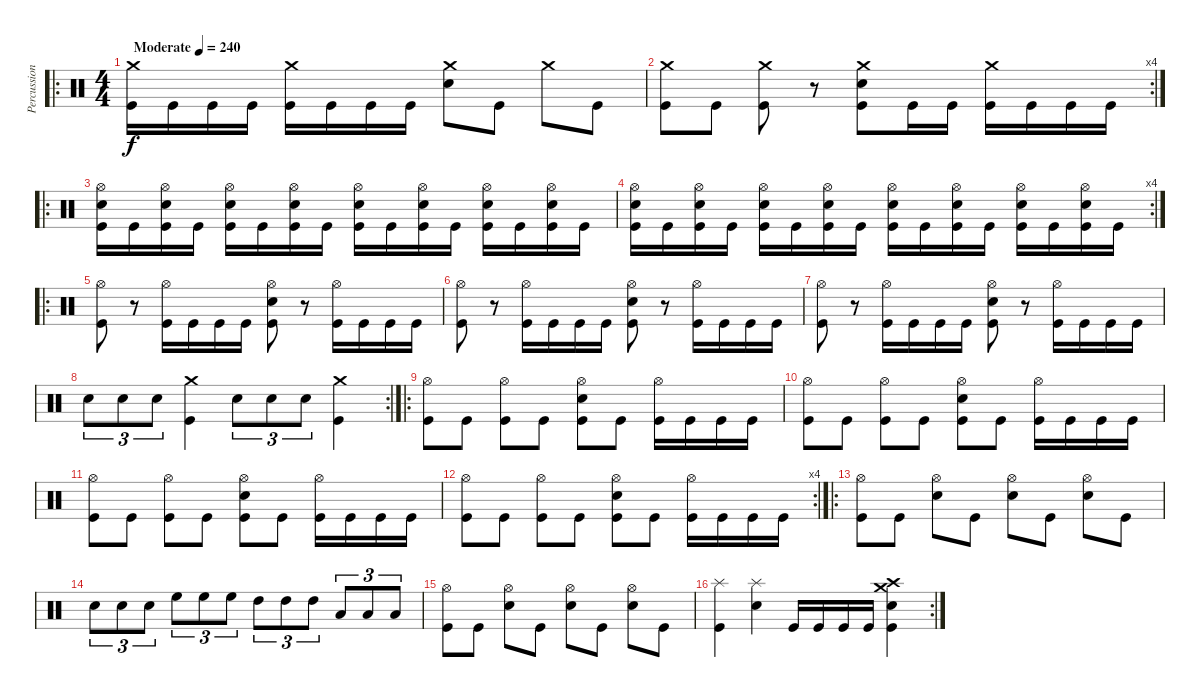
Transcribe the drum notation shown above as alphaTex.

\track ("Percussion" "Percussion") {instrument percussion}
\staff {score}
\articulation defaults
\ro
\ts (4 4)
\tempo (240 "Moderate")
\clef neutral
\ks c
("Crash medium (hit)" "Kick (hit)").16{dy f} "Kick (hit)".16 "Kick (hit)".16 "Kick (hit)".16 ("Crash medium (hit)" "Kick (hit)").16 "Kick (hit)".16 "Kick (hit)".16 "Kick (hit)".16 ("Crash medium (hit)" "Snare (hit) 2").8 "Kick (hit)".8 "Crash medium (hit)".8 "Kick (hit)".8 |
\rc 4
("Crash medium (hit)" "Kick (hit)").8 "Kick (hit)".8 ("Crash medium (hit)" "Kick (hit)").8 r.8 ("Crash medium (hit)" "Snare (hit) 2" "Kick (hit)").8 "Kick (hit)".16 "Kick (hit)".16 ("Crash medium (hit)" "Kick (hit)").16 "Kick (hit)".16 "Kick (hit)".16 "Kick (hit)".16 |
\ro
("Hi-Hat (open)" "Snare (hit) 2" "Kick (hit)").16 "Kick (hit)".16 ("Hi-Hat (open)" "Snare (hit) 2" "Kick (hit)").16 "Kick (hit)".16 ("Hi-Hat (open)" "Snare (hit) 2" "Kick (hit)").16 "Kick (hit)".16 ("Hi-Hat (open)" "Snare (hit) 2" "Kick (hit)").16 "Kick (hit)".16 ("Hi-Hat (open)" "Snare (hit) 2" "Kick (hit)").16 "Kick (hit)".16 ("Hi-Hat (open)" "Snare (hit) 2" "Kick (hit)").16 "Kick (hit)".16 ("Hi-Hat (open)" "Snare (hit) 2" "Kick (hit)").16 "Kick (hit)".16 ("Hi-Hat (open)" "Snare (hit) 2" "Kick (hit)").16 "Kick (hit)".16 |
\rc 4
("Hi-Hat (open)" "Snare (hit) 2" "Kick (hit)").16 "Kick (hit)".16 ("Hi-Hat (open)" "Snare (hit) 2" "Kick (hit)").16 "Kick (hit)".16 ("Hi-Hat (open)" "Snare (hit) 2" "Kick (hit)").16 "Kick (hit)".16 ("Hi-Hat (open)" "Snare (hit) 2" "Kick (hit)").16 "Kick (hit)".16 ("Hi-Hat (open)" "Snare (hit) 2" "Kick (hit)").16 "Kick (hit)".16 ("Hi-Hat (open)" "Snare (hit) 2" "Kick (hit)").16 "Kick (hit)".16 ("Hi-Hat (open)" "Snare (hit) 2" "Kick (hit)").16 "Kick (hit)".16 ("Hi-Hat (open)" "Snare (hit) 2" "Kick (hit)").16 "Kick (hit)".16 |
\ro
("Hi-Hat (open)" "Kick (hit)").8 r.8 ("Hi-Hat (open)" "Kick (hit)").16 "Kick (hit)".16 "Kick (hit)".16 "Kick (hit)".16 ("Hi-Hat (open)" "Snare (hit) 2" "Kick (hit)").8 r.8 ("Hi-Hat (open)" "Kick (hit)").16 "Kick (hit)".16 "Kick (hit)".16 "Kick (hit)".16 |
("Hi-Hat (open)" "Kick (hit)").8 r.8 ("Hi-Hat (open)" "Kick (hit)").16 "Kick (hit)".16 "Kick (hit)".16 "Kick (hit)".16 ("Hi-Hat (open)" "Snare (hit) 2" "Kick (hit)").8 r.8 ("Hi-Hat (open)" "Kick (hit)").16 "Kick (hit)".16 "Kick (hit)".16 "Kick (hit)".16 |
("Hi-Hat (open)" "Kick (hit)").8 r.8 ("Hi-Hat (open)" "Kick (hit)").16 "Kick (hit)".16 "Kick (hit)".16 "Kick (hit)".16 ("Hi-Hat (open)" "Snare (hit) 2" "Kick (hit)").8 r.8 ("Hi-Hat (open)" "Kick (hit)").16 "Kick (hit)".16 "Kick (hit)".16 "Kick (hit)".16 |
\rc 2 "Snare (hit) 2".8{tu (3 2)} "Snare (hit) 2".8{tu (3 2)} "Snare (hit) 2".8{tu (3 2)}
("Crash medium (hit)" "Kick (hit)").4 "Snare (hit) 2".8{tu (3 2)} "Snare (hit) 2".8{tu (3 2)} "Snare (hit) 2".8{tu (3 2)} ("Crash medium (hit)" "Kick (hit)").4 |
\ro
("Hi-Hat (open)" "Kick (hit)").8 "Kick (hit)".8 ("Hi-Hat (open)" "Kick (hit)").8 "Kick (hit)".8 ("Hi-Hat (open)" "Snare (hit) 2" "Kick (hit)").8 "Kick (hit)".8 ("Hi-Hat (open)" "Kick (hit)").16 "Kick (hit)".16 "Kick (hit)".16 "Kick (hit)".16 |
("Hi-Hat (open)" "Kick (hit)").8 "Kick (hit)".8 ("Hi-Hat (open)" "Kick (hit)").8 "Kick (hit)".8 ("Hi-Hat (open)" "Snare (hit) 2" "Kick (hit)").8 "Kick (hit)".8 ("Hi-Hat (open)" "Kick (hit)").16 "Kick (hit)".16 "Kick (hit)".16 "Kick (hit)".16 |
("Hi-Hat (open)" "Kick (hit)").8 "Kick (hit)".8 ("Hi-Hat (open)" "Kick (hit)").8 "Kick (hit)".8 ("Hi-Hat (open)" "Snare (hit) 2" "Kick (hit)").8 "Kick (hit)".8 ("Hi-Hat (open)" "Kick (hit)").16 "Kick (hit)".16 "Kick (hit)".16 "Kick (hit)".16 |
\rc 4
("Hi-Hat (open)" "Kick (hit)").8 "Kick (hit)".8 ("Hi-Hat (open)" "Kick (hit)").8 "Kick (hit)".8 ("Hi-Hat (open)" "Snare (hit) 2" "Kick (hit)").8 "Kick (hit)".8 ("Hi-Hat (open)" "Kick (hit)").16 "Kick (hit)".16 "Kick (hit)".16 "Kick (hit)".16 |
\ro
("Hi-Hat (open)" "Kick (hit)").8 "Kick (hit)".8 ("Hi-Hat (open)" "Snare (hit) 2").8 "Kick (hit)".8 ("Hi-Hat (open)" "Snare (hit) 2").8 "Kick (hit)".8 ("Hi-Hat (open)" "Snare (hit) 2").8 "Kick (hit)".8 |
"Snare (hit) 2".8{tu (3 2)} "Snare (hit) 2".8{tu (3 2)} "Snare (hit) 2".8{tu (3 2)} "High Floor Tom (hit)".8{tu (3 2)} "High Floor Tom (hit)".8{tu (3 2)} "High Floor Tom (hit)".8{tu (3 2)} "High Tom (hit)".8{tu (3 2)} "High Tom (hit)".8{tu (3 2)} "High Tom (hit)".8{tu (3 2)} "Low Tom (hit)".8{tu (3 2)} "Low Tom (hit)".8{tu (3 2)} "Low Tom (hit)".8{tu (3 2)} |
("Hi-Hat (open)" "Kick (hit)").8 "Kick (hit)".8 ("Hi-Hat (open)" "Snare (hit) 2").8 "Kick (hit)".8 ("Hi-Hat (open)" "Snare (hit) 2").8 "Kick (hit)".8 ("Hi-Hat (open)" "Snare (hit) 2").8 "Kick (hit)".8 |
\rc 2
("Splash (hit)" "Kick (hit)").4 ("Splash (hit)" "Snare (hit) 2").4 "Kick (hit)".16 "Kick (hit)".16 "Kick (hit)".16 "Kick (hit)".16 ("Crash medium (hit)" "Crash high (hit)" "Snare (hit) 2" "Kick (hit)").4
